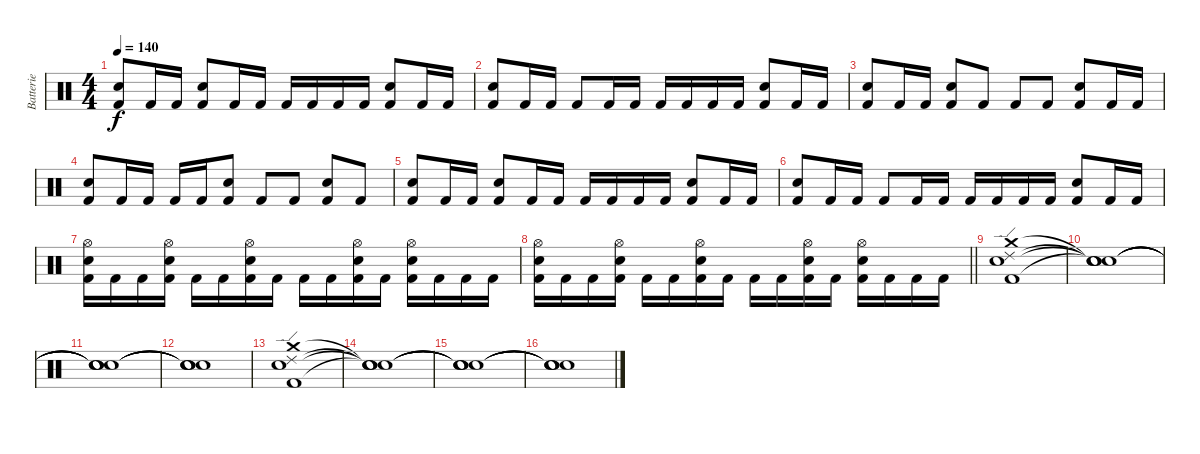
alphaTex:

\track ("Batterie" "Batterie") {instrument percussion}
\staff {score}
\articulation defaults
\ts (4 4)
\tempo 140
\clef neutral
\ks c
("Electric Snare (hit)" "Kick (hit) 2").8{dy f} "Kick (hit) 2".16 "Kick (hit) 2".16 ("Electric Snare (hit)" "Kick (hit) 2").8 "Kick (hit) 2".16 "Kick (hit) 2".16 "Kick (hit) 2".16 "Kick (hit) 2".16 "Kick (hit) 2".16 "Kick (hit) 2".16 ("Electric Snare (hit)" "Kick (hit) 2").8 "Kick (hit) 2".16 "Kick (hit) 2".16 |
("Electric Snare (hit)" "Kick (hit) 2").8 "Kick (hit) 2".16 "Kick (hit) 2".16 "Kick (hit) 2".8 "Kick (hit) 2".16 "Kick (hit) 2".16 "Kick (hit) 2".16 "Kick (hit) 2".16 "Kick (hit) 2".16 "Kick (hit) 2".16 ("Electric Snare (hit)" "Kick (hit) 2").8 "Kick (hit) 2".16 "Kick (hit) 2".16 |
("Electric Snare (hit)" "Kick (hit) 2").8 "Kick (hit) 2".16 "Kick (hit) 2".16 ("Electric Snare (hit)" "Kick (hit) 2").8 "Kick (hit) 2".8 "Kick (hit) 2".8 "Kick (hit) 2".8 ("Electric Snare (hit)" "Kick (hit) 2").8 "Kick (hit) 2".16 "Kick (hit) 2".16 |
("Electric Snare (hit)" "Kick (hit) 2").8 "Kick (hit) 2".16 "Kick (hit) 2".16 "Kick (hit) 2".16 "Kick (hit) 2".16 ("Electric Snare (hit)" "Kick (hit) 2").8 "Kick (hit) 2".8 "Kick (hit) 2".8 ("Electric Snare (hit)" "Kick (hit) 2").8 "Kick (hit) 2".8 |
("Electric Snare (hit)" "Kick (hit) 2").8 "Kick (hit) 2".16 "Kick (hit) 2".16 ("Electric Snare (hit)" "Kick (hit) 2").8 "Kick (hit) 2".16 "Kick (hit) 2".16 "Kick (hit) 2".16 "Kick (hit) 2".16 "Kick (hit) 2".16 "Kick (hit) 2".16 ("Electric Snare (hit)" "Kick (hit) 2").8 "Kick (hit) 2".16 "Kick (hit) 2".16 |
("Electric Snare (hit)" "Kick (hit) 2").8 "Kick (hit) 2".16 "Kick (hit) 2".16 "Kick (hit) 2".8 "Kick (hit) 2".16 "Kick (hit) 2".16 "Kick (hit) 2".16 "Kick (hit) 2".16 "Kick (hit) 2".16 "Kick (hit) 2".16 ("Electric Snare (hit)" "Kick (hit) 2").8 "Kick (hit) 2".16 "Kick (hit) 2".16 |
("Hi-Hat (open)" "Electric Snare (hit)" "Kick (hit) 2").16 "Kick (hit) 2".16 "Kick (hit) 2".16 ("Hi-Hat (open)" "Electric Snare (hit)" "Kick (hit) 2").16 "Kick (hit) 2".16 "Kick (hit) 2".16 ("Hi-Hat (open)" "Electric Snare (hit)" "Kick (hit) 2").16 "Kick (hit) 2".16 "Kick (hit) 2".16 "Kick (hit) 2".16 ("Hi-Hat (open)" "Electric Snare (hit)" "Kick (hit) 2").16 "Kick (hit) 2".16 ("Hi-Hat (open)" "Electric Snare (hit)" "Kick (hit) 2").16 "Kick (hit) 2".16 "Kick (hit) 2".16 "Kick (hit) 2".16 |
\barLineRight lightlight
("Hi-Hat (open)" "Electric Snare (hit)" "Kick (hit) 2").16 "Kick (hit) 2".16 "Kick (hit) 2".16 ("Hi-Hat (open)" "Electric Snare (hit)" "Kick (hit) 2").16 "Kick (hit) 2".16 "Kick (hit) 2".16 ("Hi-Hat (open)" "Electric Snare (hit)" "Kick (hit) 2").16 "Kick (hit) 2".16 "Kick (hit) 2".16 "Kick (hit) 2".16 ("Hi-Hat (open)" "Electric Snare (hit)" "Kick (hit) 2").16 "Kick (hit) 2".16 ("Hi-Hat (open)" "Electric Snare (hit)" "Kick (hit) 2").16 "Kick (hit) 2".16 "Kick (hit) 2".16 "Kick (hit) 2".16 |
("Crash medium (hit)" "Ride (edge) 2" "Electric Snare (hit)" "Kick (hit) 2").1 |
("Snare (hit)"{t} "Snare (hit)"{t} "Snare (hit)"{t} "Snare (hit)"{t}).1 |
("Snare (hit)"{t} "Snare (hit)"{t} "Snare (hit)"{t} "Snare (hit)"{t}).1 |
("Snare (hit)"{t} "Snare (hit)"{t} "Snare (hit)"{t} "Snare (hit)"{t}).1 |
("Crash medium (hit)" "Ride (edge) 2" "Electric Snare (hit)" "Kick (hit) 2").1 |
("Snare (hit)"{t} "Snare (hit)"{t} "Snare (hit)"{t} "Snare (hit)"{t}).1 |
("Snare (hit)"{t} "Snare (hit)"{t} "Snare (hit)"{t} "Snare (hit)"{t}).1 |
("Snare (hit)"{t} "Snare (hit)"{t} "Snare (hit)"{t} "Snare (hit)"{t}).1
